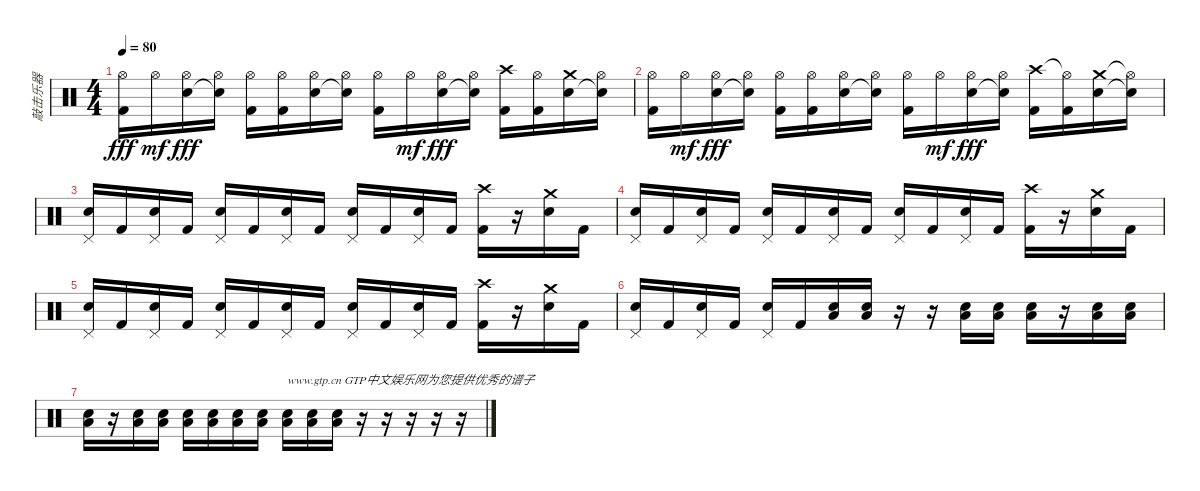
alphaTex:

\track ("敲击乐器" "敲击乐器") {instrument percussion}
\staff {score}
\articulation defaults
\ts (4 4)
\tempo 80
\clef neutral
\ks c
("Hi-Hat (open)" "Kick (hit) 2").16{dy fff} "Hi-Hat (open)".16{dy mf} ("Hi-Hat (open)" "Electric Snare (hit)").16{dy fff} ("Hi-Hat (open)" "Snare (hit)"{t}).16 ("Hi-Hat (open)" "Kick (hit) 2").16 ("Hi-Hat (open)" "Kick (hit) 2").16 ("Hi-Hat (open)" "Electric Snare (hit)").16 ("Hi-Hat (open)" "Snare (hit)"{t}).16 ("Hi-Hat (open)" "Kick (hit) 2").16 "Hi-Hat (open)".16{dy mf} ("Hi-Hat (open)" "Electric Snare (hit)").16{dy fff} ("Hi-Hat (open)" "Snare (hit)"{t}).16 ("Crash high (hit)" "Kick (hit) 2").16 ("Hi-Hat (open)" "Kick (hit) 2").16 ("Crash medium (hit)" "Electric Snare (hit)").16 ("Hi-Hat (open)" "Snare (hit)"{t}).16 |
("Hi-Hat (open)" "Kick (hit) 2").16 "Hi-Hat (open)".16{dy mf} ("Hi-Hat (open)" "Electric Snare (hit)").16{dy fff} ("Hi-Hat (open)" "Snare (hit)"{t}).16 ("Hi-Hat (open)" "Kick (hit) 2").16 ("Hi-Hat (open)" "Kick (hit) 2").16 ("Hi-Hat (open)" "Electric Snare (hit)").16 ("Hi-Hat (open)" "Snare (hit)"{t}).16 ("Hi-Hat (open)" "Kick (hit) 2").16 "Hi-Hat (open)".16{dy mf} ("Hi-Hat (open)" "Electric Snare (hit)").16{dy fff} ("Hi-Hat (open)" "Snare (hit)"{t}).16 ("Crash high (hit)" "Kick (hit) 2").16 ("Hi-Hat (open)"{t} "Kick (hit) 2").16 ("Crash medium (hit)" "Electric Snare (hit)").16 ("Hi-Hat (open)"{t} "Snare (hit)"{t}).16 |
("Pedal Hi-Hat (hit)" "Electric Snare (hit)").16 "Kick (hit) 2".16 ("Pedal Hi-Hat (hit)" "Electric Snare (hit)").16 "Kick (hit) 2".16 ("Pedal Hi-Hat (hit)" "Electric Snare (hit)").16 "Kick (hit) 2".16 ("Pedal Hi-Hat (hit)" "Electric Snare (hit)").16 "Kick (hit) 2".16 ("Pedal Hi-Hat (hit)" "Electric Snare (hit)").16 "Kick (hit) 2".16 ("Pedal Hi-Hat (hit)" "Electric Snare (hit)").16 "Kick (hit) 2".16 ("Crash high (hit)" "Kick (hit) 2").16 r.16 ("Crash medium (hit)" "Electric Snare (hit)").16 "Kick (hit) 2".16 |
("Pedal Hi-Hat (hit)" "Electric Snare (hit)").16 "Kick (hit) 2".16 ("Pedal Hi-Hat (hit)" "Electric Snare (hit)").16 "Kick (hit) 2".16 ("Pedal Hi-Hat (hit)" "Electric Snare (hit)").16 "Kick (hit) 2".16 ("Pedal Hi-Hat (hit)" "Electric Snare (hit)").16 "Kick (hit) 2".16 ("Pedal Hi-Hat (hit)" "Electric Snare (hit)").16 "Kick (hit) 2".16 ("Pedal Hi-Hat (hit)" "Electric Snare (hit)").16 "Kick (hit) 2".16 ("Crash high (hit)" "Kick (hit) 2").16 r.16 ("Crash medium (hit)" "Electric Snare (hit)").16 "Kick (hit) 2".16 |
("Pedal Hi-Hat (hit)" "Electric Snare (hit)").16 "Kick (hit) 2".16 ("Pedal Hi-Hat (hit)" "Electric Snare (hit)").16 "Kick (hit) 2".16 ("Pedal Hi-Hat (hit)" "Electric Snare (hit)").16 "Kick (hit) 2".16 ("Pedal Hi-Hat (hit)" "Electric Snare (hit)").16 "Kick (hit) 2".16 ("Pedal Hi-Hat (hit)" "Electric Snare (hit)").16 "Kick (hit) 2".16 ("Pedal Hi-Hat (hit)" "Electric Snare (hit)").16 "Kick (hit) 2".16 ("Crash high (hit)" "Kick (hit) 2").16 r.16 ("Crash medium (hit)" "Electric Snare (hit)").16 "Kick (hit) 2".16 |
("Pedal Hi-Hat (hit)" "Electric Snare (hit)").16 "Kick (hit) 2".16 ("Pedal Hi-Hat (hit)" "Electric Snare (hit)").16 "Kick (hit) 2".16 ("Pedal Hi-Hat (hit)" "Electric Snare (hit)").16 "Kick (hit) 2".16 ("Low Floor Tom (hit)" "Electric Snare (hit)").16 ("Low Floor Tom (hit)" "Electric Snare (hit)").16 r.16 r.16 ("Low Floor Tom (hit)" "Electric Snare (hit)").16 ("Low Floor Tom (hit)" "Electric Snare (hit)").16 ("Low Floor Tom (hit)" "Electric Snare (hit)").16 r.16 ("Low Floor Tom (hit)" "Electric Snare (hit)").16 ("Low Floor Tom (hit)" "Electric Snare (hit)").16 |
("Low Floor Tom (hit)" "Electric Snare (hit)").16 r.16 ("Low Floor Tom (hit)" "Electric Snare (hit)").16 ("Low Floor Tom (hit)" "Electric Snare (hit)").16 ("Low Floor Tom (hit)" "Electric Snare (hit)").16 ("Low Floor Tom (hit)" "Electric Snare (hit)").16 ("Low Floor Tom (hit)" "Electric Snare (hit)").16 ("Low Floor Tom (hit)" "Electric Snare (hit)").16 ("Low Floor Tom (hit)" "Electric Snare (hit)").16{txt "www.gtp.cn GTP中文娱乐网为您提供优秀的谱子"} ("Low Floor Tom (hit)" "Electric Snare (hit)").16 ("Low Floor Tom (hit)" "Electric Snare (hit)").16 r.16 r.16 r.16 r.16 r.16
